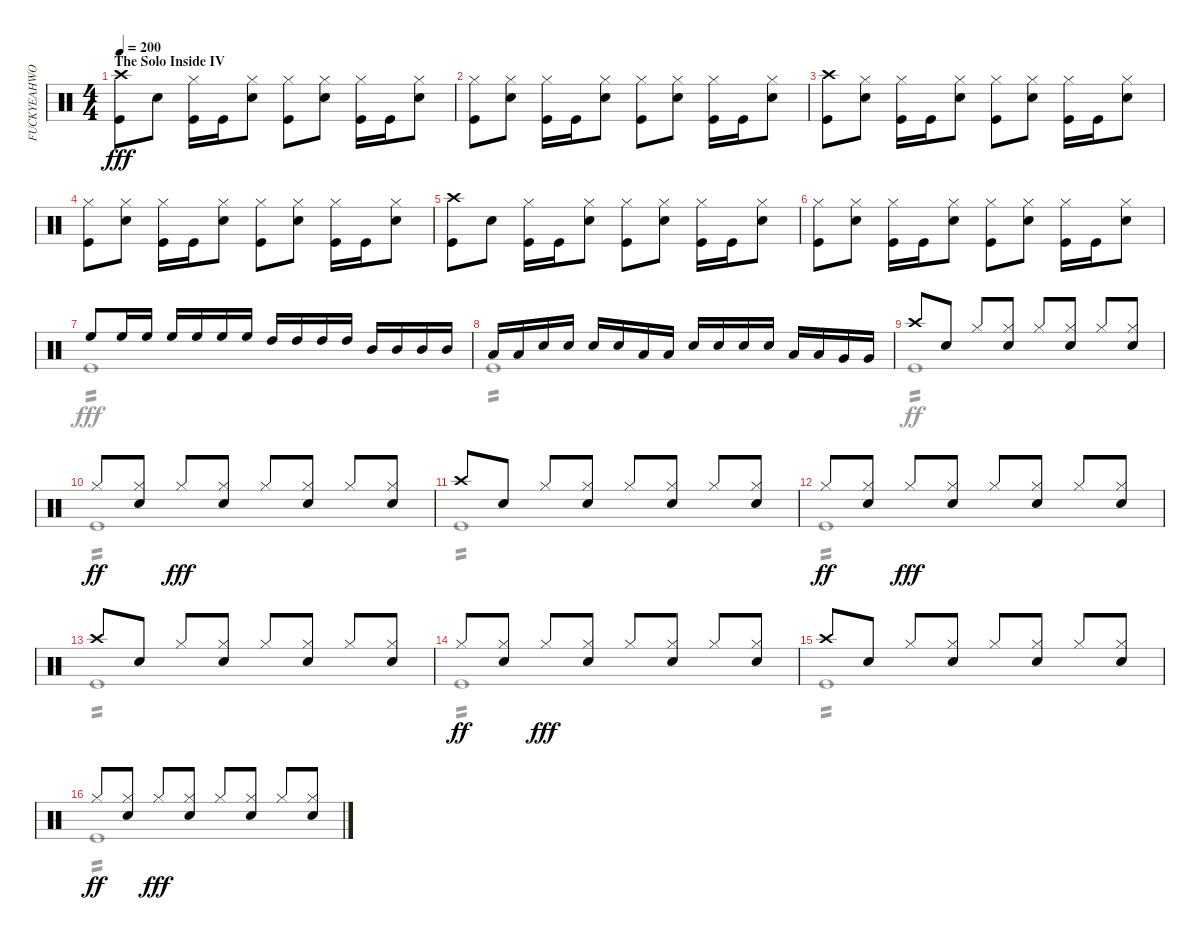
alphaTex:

\track ("FUCKYEAHWOOTDAVEMACKINTOSH!(Percussion)" "FUCKYEAHWO") {instrument percussion}
\staff {score}
\articulation defaults
\voice
\ts (4 4)
\section ("" "The Solo Inside IV")
\tempo 200
\clef neutral
\ks c
("Kick (hit)" "Crash high (hit)").8{dy fff} "Snare (hit) 2".8 ("Kick (hit)" "Hi-Hat (closed)").16 "Kick (hit)".16 ("Snare (hit) 2" "Hi-Hat (closed)").8 ("Kick (hit)" "Hi-Hat (closed)").8 ("Snare (hit) 2" "Hi-Hat (closed)").8 ("Kick (hit)" "Hi-Hat (closed)").16 "Kick (hit)".16 ("Snare (hit) 2" "Hi-Hat (closed)").8 |
("Kick (hit)" "Hi-Hat (closed)").8 ("Snare (hit) 2" "Hi-Hat (closed)").8 ("Kick (hit)" "Hi-Hat (closed)").16 "Kick (hit)".16 ("Snare (hit) 2" "Hi-Hat (closed)").8 ("Kick (hit)" "Hi-Hat (closed)").8 ("Snare (hit) 2" "Hi-Hat (closed)").8 ("Kick (hit)" "Hi-Hat (closed)").16 "Kick (hit)".16 ("Snare (hit) 2" "Hi-Hat (closed)").8 |
("Kick (hit)" "Crash high (hit)").8 ("Snare (hit) 2" "Hi-Hat (closed)").8 ("Kick (hit)" "Hi-Hat (closed)").16 "Kick (hit)".16 ("Snare (hit) 2" "Hi-Hat (closed)").8 ("Kick (hit)" "Hi-Hat (closed)").8 ("Snare (hit) 2" "Hi-Hat (closed)").8 ("Kick (hit)" "Hi-Hat (closed)").16 "Kick (hit)".16 ("Snare (hit) 2" "Hi-Hat (closed)").8 |
("Kick (hit)" "Hi-Hat (closed)").8 ("Snare (hit) 2" "Hi-Hat (closed)").8 ("Kick (hit)" "Hi-Hat (closed)").16 "Kick (hit)".16 ("Snare (hit) 2" "Hi-Hat (closed)").8 ("Kick (hit)" "Hi-Hat (closed)").8 ("Snare (hit) 2" "Hi-Hat (closed)").8 ("Kick (hit)" "Hi-Hat (closed)").16 "Kick (hit)".16 ("Snare (hit) 2" "Hi-Hat (closed)").8 |
("Kick (hit)" "Crash high (hit)").8 "Snare (hit) 2".8 ("Kick (hit)" "Hi-Hat (closed)").16 "Kick (hit)".16 ("Snare (hit) 2" "Hi-Hat (closed)").8 ("Kick (hit)" "Hi-Hat (closed)").8 ("Snare (hit) 2" "Hi-Hat (closed)").8 ("Kick (hit)" "Hi-Hat (closed)").16 "Kick (hit)".16 ("Snare (hit) 2" "Hi-Hat (closed)").8 |
("Kick (hit)" "Hi-Hat (closed)").8 ("Snare (hit) 2" "Hi-Hat (closed)").8 ("Kick (hit)" "Hi-Hat (closed)").16 "Kick (hit)".16 ("Snare (hit) 2" "Hi-Hat (closed)").8 ("Kick (hit)" "Hi-Hat (closed)").8 ("Snare (hit) 2" "Hi-Hat (closed)").8 ("Kick (hit)" "Hi-Hat (closed)").16 "Kick (hit)".16 ("Snare (hit) 2" "Hi-Hat (closed)").8 |
"High Floor Tom (hit)".8 "High Floor Tom (hit)".16 "High Floor Tom (hit)".16 "High Floor Tom (hit)".16 "High Floor Tom (hit)".16 "High Floor Tom (hit)".16 "High Floor Tom (hit)".16 "High Tom (hit)".16 "High Tom (hit)".16 "High Tom (hit)".16 "High Tom (hit)".16 "Mid Tom (hit)".16 "Mid Tom (hit)".16 "Mid Tom (hit)".16 "Mid Tom (hit)".16 |
"Low Tom (hit)".16 "Low Tom (hit)".16 "Snare (hit) 2".16 "Snare (hit) 2".16 "Snare (hit) 2".16 "Snare (hit) 2".16 "Low Tom (hit)".16 "Low Tom (hit)".16 "Snare (hit) 2".16 "Snare (hit) 2".16 "Snare (hit) 2".16 "Snare (hit) 2".16 "Low Tom (hit)".16 "Low Tom (hit)".16 "Very Low Tom (hit)".16 "Very Low Tom (hit)".16 |
"Crash high (hit)".8 "Snare (hit) 2".8 "Hi-Hat (closed)".8 ("Snare (hit) 2" "Hi-Hat (closed)").8 "Hi-Hat (closed)".8 ("Snare (hit) 2" "Hi-Hat (closed)").8 "Hi-Hat (closed)".8 ("Snare (hit) 2" "Hi-Hat (closed)").8 |
"Hi-Hat (closed)".8{dy ff} ("Snare (hit) 2" "Hi-Hat (closed)").8 "Hi-Hat (closed)".8{dy fff} ("Snare (hit) 2" "Hi-Hat (closed)").8 "Hi-Hat (closed)".8 ("Snare (hit) 2" "Hi-Hat (closed)").8 "Hi-Hat (closed)".8 ("Snare (hit) 2" "Hi-Hat (closed)").8 |
"Crash high (hit)".8 "Snare (hit) 2".8 "Hi-Hat (closed)".8 ("Snare (hit) 2" "Hi-Hat (closed)").8 "Hi-Hat (closed)".8 ("Snare (hit) 2" "Hi-Hat (closed)").8 "Hi-Hat (closed)".8 ("Snare (hit) 2" "Hi-Hat (closed)").8 |
"Hi-Hat (closed)".8{dy ff} ("Snare (hit) 2" "Hi-Hat (closed)").8 "Hi-Hat (closed)".8{dy fff} ("Snare (hit) 2" "Hi-Hat (closed)").8 "Hi-Hat (closed)".8 ("Snare (hit) 2" "Hi-Hat (closed)").8 "Hi-Hat (closed)".8 ("Snare (hit) 2" "Hi-Hat (closed)").8 |
"Crash high (hit)".8 "Snare (hit) 2".8 "Hi-Hat (closed)".8 ("Snare (hit) 2" "Hi-Hat (closed)").8 "Hi-Hat (closed)".8 ("Snare (hit) 2" "Hi-Hat (closed)").8 "Hi-Hat (closed)".8 ("Snare (hit) 2" "Hi-Hat (closed)").8 |
"Hi-Hat (closed)".8{dy ff} ("Snare (hit) 2" "Hi-Hat (closed)").8 "Hi-Hat (closed)".8{dy fff} ("Snare (hit) 2" "Hi-Hat (closed)").8 "Hi-Hat (closed)".8 ("Snare (hit) 2" "Hi-Hat (closed)").8 "Hi-Hat (closed)".8 ("Snare (hit) 2" "Hi-Hat (closed)").8 |
"Crash high (hit)".8 "Snare (hit) 2".8 "Hi-Hat (closed)".8 ("Snare (hit) 2" "Hi-Hat (closed)").8 "Hi-Hat (closed)".8 ("Snare (hit) 2" "Hi-Hat (closed)").8 "Hi-Hat (closed)".8 ("Snare (hit) 2" "Hi-Hat (closed)").8 |
"Hi-Hat (closed)".8{dy ff} ("Snare (hit) 2" "Hi-Hat (closed)").8 "Hi-Hat (closed)".8{dy fff} ("Snare (hit) 2" "Hi-Hat (closed)").8 "Hi-Hat (closed)".8 ("Snare (hit) 2" "Hi-Hat (closed)").8 "Hi-Hat (closed)".8 ("Snare (hit) 2" "Hi-Hat (closed)").8
\voice
\clef neutral
\ottava regular
\simile none
\ks c
|
|
|
|
|
|
"Kick (hit)".1{tp 2} |
"Kick (hit)".1{tp 2} |
"Kick (hit)".1{tp 2 dy ff} |
"Kick (hit)".1{tp 2} |
"Kick (hit)".1{tp 2} |
"Kick (hit)".1{tp 2} |
"Kick (hit)".1{tp 2} |
"Kick (hit)".1{tp 2} |
"Kick (hit)".1{tp 2} |
"Kick (hit)".1{tp 2}
